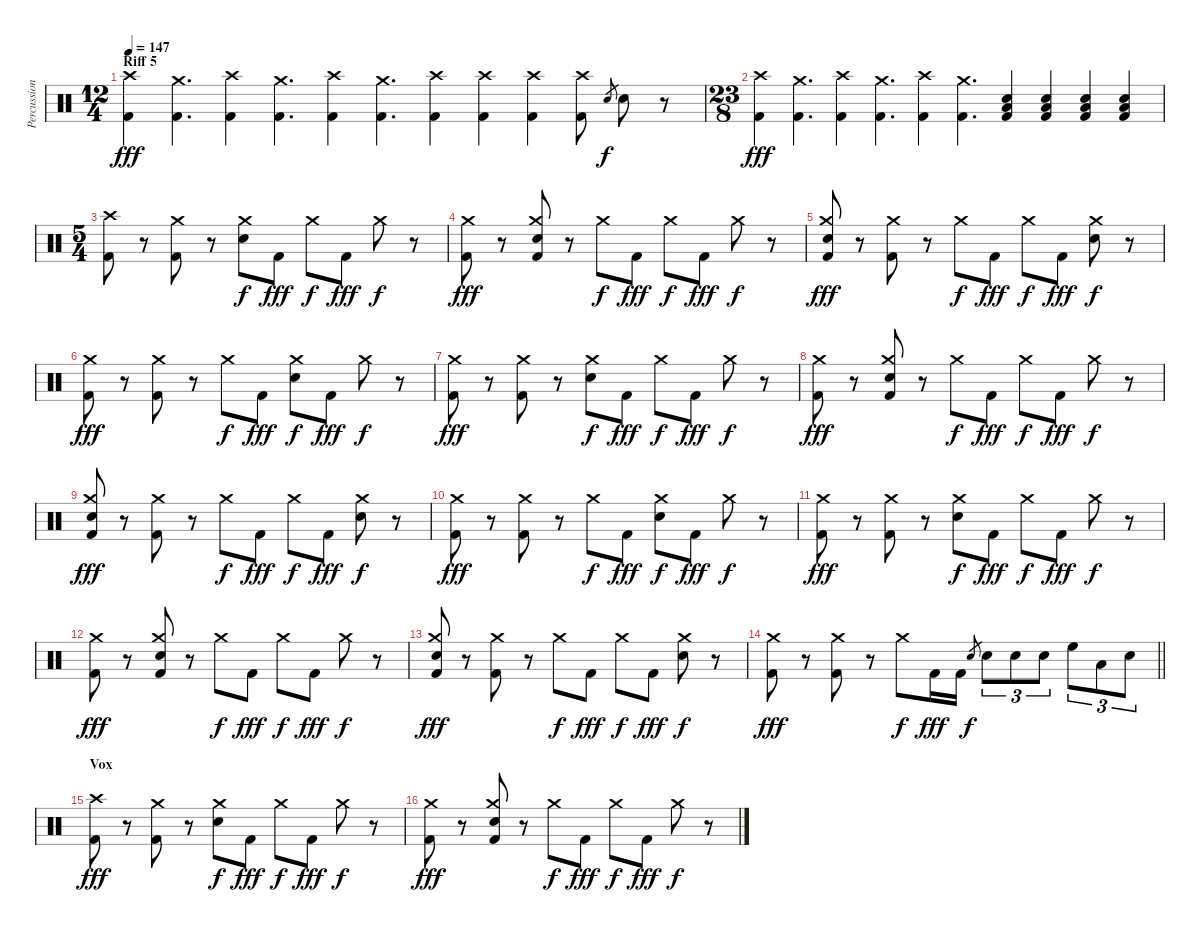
\track ("Percussion" "Percussion") {instrument percussion}
\staff {score}
\articulation defaults
\ts (12 4)
\section ("" "Riff 5")
\tempo 147
\clef neutral
\ks c
("Crash high (hit)" "Kick (hit) 2").4{dy fff} ("Crash medium (hit)" "Kick (hit) 2").4{d} ("Crash high (hit)" "Kick (hit) 2").4 ("Crash medium (hit)" "Kick (hit) 2").4{d} ("Crash high (hit)" "Kick (hit) 2").4 ("Crash medium (hit)" "Kick (hit) 2").4{d} ("Crash high (hit)" "Kick (hit) 2").4 ("Crash high (hit)" "Kick (hit) 2").4 ("Crash high (hit)" "Kick (hit) 2").4 ("Crash high (hit)" "Kick (hit) 2").8 "Electric Snare (hit)".8{gr dy f} "Electric Snare (hit)".8 r.8 |
\ts (23 8)
("Crash high (hit)" "Kick (hit) 2").4{dy fff} ("Crash medium (hit)" "Kick (hit) 2").4{d} ("Crash high (hit)" "Kick (hit) 2").4 ("Crash medium (hit)" "Kick (hit) 2").4{d} ("Crash high (hit)" "Kick (hit) 2").4 ("Crash medium (hit)" "Kick (hit) 2").4{d} ("Electric Snare (hit)" "Low Floor Tom (hit)" "Kick (hit) 2").4 ("Electric Snare (hit)" "Low Floor Tom (hit)" "Kick (hit) 2").4 ("Electric Snare (hit)" "Low Floor Tom (hit)" "Kick (hit) 2").4 ("Electric Snare (hit)" "Low Floor Tom (hit)" "Kick (hit) 2").4 |
\ts (5 4)
("Crash high (hit)" "Kick (hit) 2").8 r.8 ("Crash medium (hit)" "Kick (hit) 2").8 r.8 ("Crash medium (hit)" "Electric Snare (hit)").8{dy f} "Kick (hit) 2".8{dy fff} "Crash medium (hit)".8{dy f} "Kick (hit) 2".8{dy fff} "Crash medium (hit)".8{dy f} r.8 |
("Crash medium (hit)" "Kick (hit) 2").8{dy fff} r.8 ("Crash medium (hit)" "Electric Snare (hit)" "Kick (hit) 2").8 r.8 "Crash medium (hit)".8{dy f} "Kick (hit) 2".8{dy fff} "Crash medium (hit)".8{dy f} "Kick (hit) 2".8{dy fff} "Crash medium (hit)".8{dy f} r.8 |
("Crash medium (hit)" "Electric Snare (hit)" "Kick (hit) 2").8{dy fff} r.8 ("Crash medium (hit)" "Kick (hit) 2").8 r.8 "Crash medium (hit)".8{dy f} "Kick (hit) 2".8{dy fff} "Crash medium (hit)".8{dy f} "Kick (hit) 2".8{dy fff} ("Crash medium (hit)" "Electric Snare (hit)").8{dy f} r.8 |
("Crash medium (hit)" "Kick (hit) 2").8{dy fff} r.8 ("Crash medium (hit)" "Kick (hit) 2").8 r.8 "Crash medium (hit)".8{dy f} "Kick (hit) 2".8{dy fff} ("Crash medium (hit)" "Electric Snare (hit)").8{dy f} "Kick (hit) 2".8{dy fff} "Crash medium (hit)".8{dy f} r.8 |
("Crash medium (hit)" "Kick (hit) 2").8{dy fff} r.8 ("Crash medium (hit)" "Kick (hit) 2").8 r.8 ("Crash medium (hit)" "Electric Snare (hit)").8{dy f} "Kick (hit) 2".8{dy fff} "Crash medium (hit)".8{dy f} "Kick (hit) 2".8{dy fff} "Crash medium (hit)".8{dy f} r.8 |
("Crash medium (hit)" "Kick (hit) 2").8{dy fff} r.8 ("Crash medium (hit)" "Electric Snare (hit)" "Kick (hit) 2").8 r.8 "Crash medium (hit)".8{dy f} "Kick (hit) 2".8{dy fff} "Crash medium (hit)".8{dy f} "Kick (hit) 2".8{dy fff} "Crash medium (hit)".8{dy f} r.8 |
("Crash medium (hit)" "Electric Snare (hit)" "Kick (hit) 2").8{dy fff} r.8 ("Crash medium (hit)" "Kick (hit) 2").8 r.8 "Crash medium (hit)".8{dy f} "Kick (hit) 2".8{dy fff} "Crash medium (hit)".8{dy f} "Kick (hit) 2".8{dy fff} ("Crash medium (hit)" "Electric Snare (hit)").8{dy f} r.8 |
("Crash medium (hit)" "Kick (hit) 2").8{dy fff} r.8 ("Crash medium (hit)" "Kick (hit) 2").8 r.8 "Crash medium (hit)".8{dy f} "Kick (hit) 2".8{dy fff} ("Crash medium (hit)" "Electric Snare (hit)").8{dy f} "Kick (hit) 2".8{dy fff} "Crash medium (hit)".8{dy f} r.8 |
("Crash medium (hit)" "Kick (hit) 2").8{dy fff} r.8 ("Crash medium (hit)" "Kick (hit) 2").8 r.8 ("Crash medium (hit)" "Electric Snare (hit)").8{dy f} "Kick (hit) 2".8{dy fff} "Crash medium (hit)".8{dy f} "Kick (hit) 2".8{dy fff} "Crash medium (hit)".8{dy f} r.8 |
("Crash medium (hit)" "Kick (hit) 2").8{dy fff} r.8 ("Crash medium (hit)" "Electric Snare (hit)" "Kick (hit) 2").8 r.8 "Crash medium (hit)".8{dy f} "Kick (hit) 2".8{dy fff} "Crash medium (hit)".8{dy f} "Kick (hit) 2".8{dy fff} "Crash medium (hit)".8{dy f} r.8 |
("Crash medium (hit)" "Electric Snare (hit)" "Kick (hit) 2").8{dy fff} r.8 ("Crash medium (hit)" "Kick (hit) 2").8 r.8 "Crash medium (hit)".8{dy f} "Kick (hit) 2".8{dy fff} "Crash medium (hit)".8{dy f} "Kick (hit) 2".8{dy fff} ("Crash medium (hit)" "Electric Snare (hit)").8{dy f} r.8 |
\barLineRight lightlight
("Crash medium (hit)" "Kick (hit) 2").8{dy fff} r.8 ("Crash medium (hit)" "Kick (hit) 2").8 r.8 "Crash medium (hit)".8{dy f} "Kick (hit) 2".16{dy fff} "Kick (hit) 2".16 "Electric Snare (hit)".8{gr dy f} "Electric Snare (hit)".8{tu (3 2)} "Electric Snare (hit)".8{tu (3 2)} "Electric Snare (hit)".8{tu (3 2)} "High Floor Tom (hit)".8{tu (3 2)} "Low Tom (hit)".8{tu (3 2)} "Electric Snare (hit)".8{tu (3 2)} |
\section ("" "Vox ")
("Crash high (hit)" "Kick (hit) 2").8{dy fff} r.8 ("Crash medium (hit)" "Kick (hit) 2").8 r.8 ("Crash medium (hit)" "Electric Snare (hit)").8{dy f} "Kick (hit) 2".8{dy fff} "Crash medium (hit)".8{dy f} "Kick (hit) 2".8{dy fff} "Crash medium (hit)".8{dy f} r.8 |
("Crash medium (hit)" "Kick (hit) 2").8{dy fff} r.8 ("Crash medium (hit)" "Electric Snare (hit)" "Kick (hit) 2").8 r.8 "Crash medium (hit)".8{dy f} "Kick (hit) 2".8{dy fff} "Crash medium (hit)".8{dy f} "Kick (hit) 2".8{dy fff} "Crash medium (hit)".8{dy f} r.8
